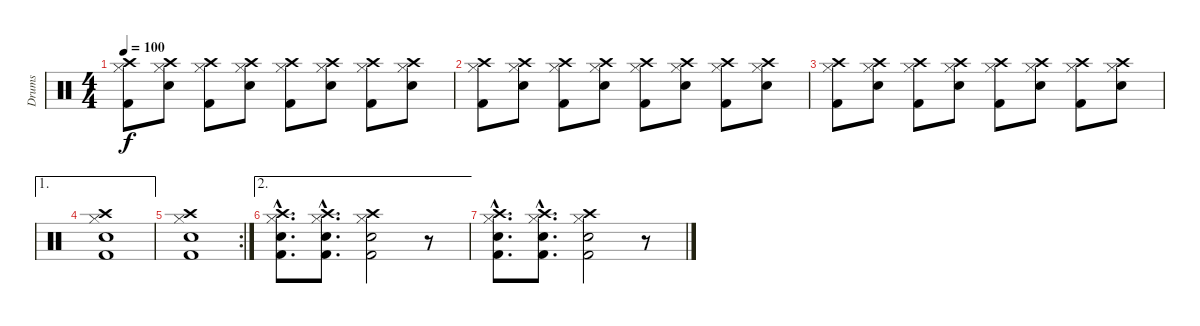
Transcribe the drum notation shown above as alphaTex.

\track ("Drums" "Drums") {instrument percussion}
\staff {score}
\articulation defaults
\ts (4 4)
\tempo 100
\clef neutral
\ks c
("Crash high (hit)" "Hi-Hat (closed)" "Kick (hit) 2").8{dy f} ("Crash high (hit)" "Hi-Hat (closed)" "Electric Snare (hit)").8 ("Crash high (hit)" "Hi-Hat (closed)" "Kick (hit) 2").8 ("Crash high (hit)" "Hi-Hat (closed)" "Electric Snare (hit)").8 ("Crash high (hit)" "Hi-Hat (closed)" "Kick (hit) 2").8 ("Crash high (hit)" "Hi-Hat (closed)" "Electric Snare (hit)").8 ("Crash high (hit)" "Hi-Hat (closed)" "Kick (hit) 2").8 ("Crash high (hit)" "Hi-Hat (closed)" "Electric Snare (hit)").8 |
("Crash high (hit)" "Hi-Hat (closed)" "Kick (hit) 2").8 ("Crash high (hit)" "Hi-Hat (closed)" "Electric Snare (hit)").8 ("Crash high (hit)" "Hi-Hat (closed)" "Kick (hit) 2").8 ("Crash high (hit)" "Hi-Hat (closed)" "Electric Snare (hit)").8 ("Crash high (hit)" "Hi-Hat (closed)" "Kick (hit) 2").8 ("Crash high (hit)" "Hi-Hat (closed)" "Electric Snare (hit)").8 ("Crash high (hit)" "Hi-Hat (closed)" "Kick (hit) 2").8 ("Crash high (hit)" "Hi-Hat (closed)" "Electric Snare (hit)").8 |
("Crash high (hit)" "Hi-Hat (closed)" "Kick (hit) 2").8 ("Crash high (hit)" "Hi-Hat (closed)" "Electric Snare (hit)").8 ("Crash high (hit)" "Hi-Hat (closed)" "Kick (hit) 2").8 ("Crash high (hit)" "Hi-Hat (closed)" "Electric Snare (hit)").8 ("Crash high (hit)" "Hi-Hat (closed)" "Kick (hit) 2").8 ("Crash high (hit)" "Hi-Hat (closed)" "Electric Snare (hit)").8 ("Crash high (hit)" "Hi-Hat (closed)" "Kick (hit) 2").8 ("Crash high (hit)" "Hi-Hat (closed)" "Electric Snare (hit)").8 |
\ae 1
("Crash high (hit)" "Hi-Hat (closed)" "Kick (hit) 2" "Electric Snare (hit)").1 |
\rc 2
("Crash high (hit)" "Hi-Hat (closed)" "Kick (hit) 2" "Electric Snare (hit)").1 |
\ae 2
("Crash high (hit)"{hac} "Hi-Hat (closed)"{hac} "Kick (hit) 2"{hac} "Electric Snare (hit)"{hac}).8{d} ("Crash high (hit)"{hac} "Hi-Hat (closed)"{hac} "Kick (hit) 2"{hac} "Electric Snare (hit)"{hac}).8{d} ("Crash high (hit)" "Hi-Hat (closed)" "Kick (hit) 2" "Electric Snare (hit)").2 r.8 |
("Crash high (hit)"{hac} "Hi-Hat (closed)"{hac} "Kick (hit) 2"{hac} "Electric Snare (hit)"{hac}).8{d} ("Crash high (hit)"{hac} "Hi-Hat (closed)"{hac} "Kick (hit) 2"{hac} "Electric Snare (hit)"{hac}).8{d} ("Crash high (hit)" "Hi-Hat (closed)" "Kick (hit) 2" "Electric Snare (hit)").2 r.8
